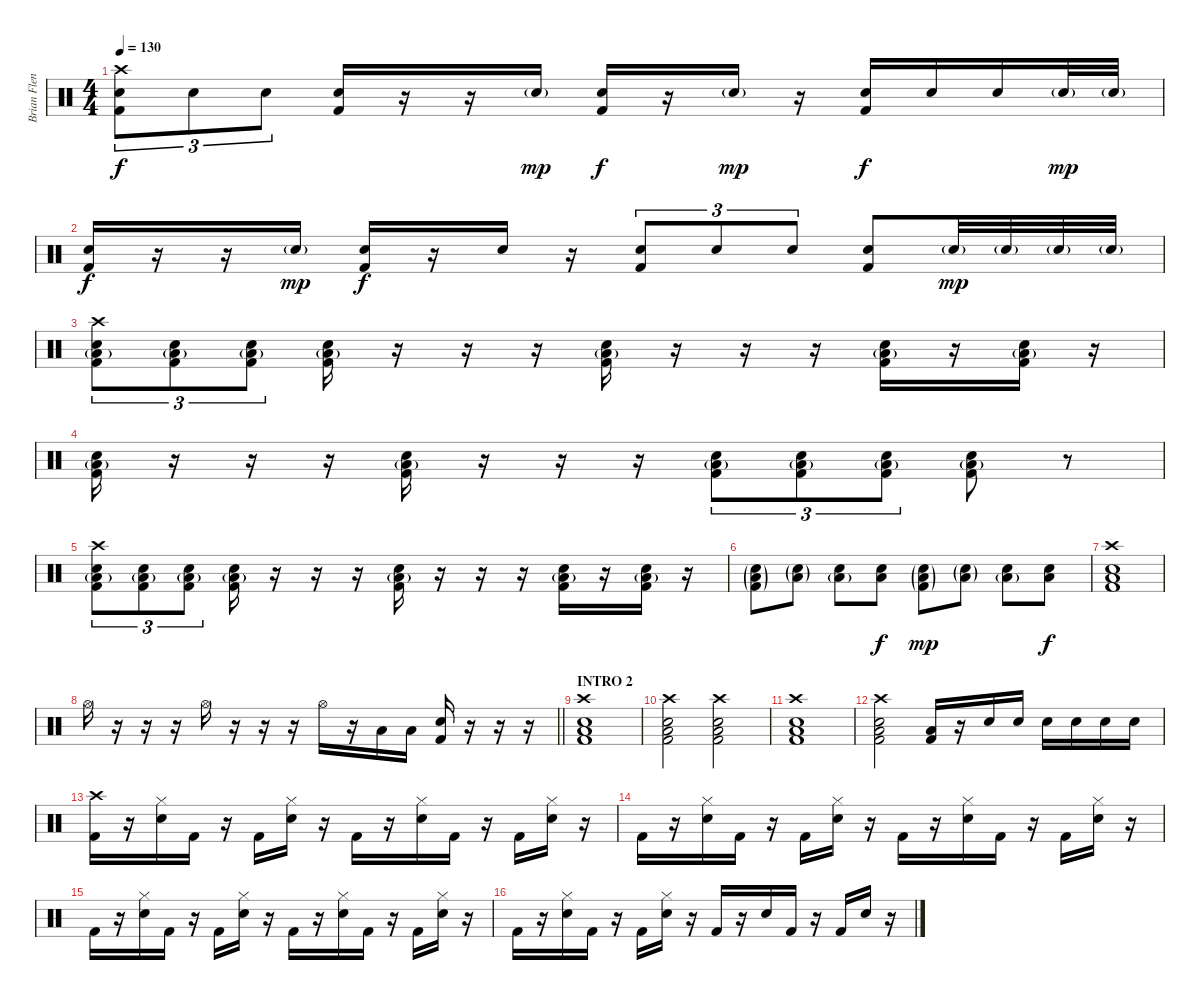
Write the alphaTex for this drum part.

\track ("Brian Flenniken" "Brian Flen") {instrument percussion}
\staff {score}
\articulation defaults
\ts (4 4)
\tempo 130
\clef neutral
\ks c
("Crash high (hit)" "Snare (hit) 2" "Kick (hit) 2").8{tu (3 2) dy f} "Snare (hit) 2".8{tu (3 2)} "Snare (hit) 2".8{tu (3 2)} ("Snare (hit) 2" "Kick (hit) 2").16 r.16 r.16 "Snare (hit) 2"{g}.16{dy mp} ("Snare (hit) 2" "Kick (hit) 2").16{dy f} r.16 "Snare (hit) 2"{g}.16{dy mp} r.16 ("Snare (hit) 2" "Kick (hit) 2").16{dy f} "Snare (hit) 2".16 "Snare (hit) 2".16 "Snare (hit) 2"{g}.32{dy mp} "Snare (hit) 2"{g}.32 |
("Snare (hit) 2" "Kick (hit) 2").16{dy f} r.16 r.16 "Snare (hit) 2"{g}.16{dy mp} ("Snare (hit) 2" "Kick (hit) 2").16{dy f} r.16 "Snare (hit) 2".16 r.16 ("Snare (hit) 2" "Kick (hit) 2").8{tu (3 2)} "Snare (hit) 2".8{tu (3 2)} "Snare (hit) 2".8{tu (3 2)} ("Snare (hit) 2" "Kick (hit) 2").8 "Snare (hit) 2"{g}.32{dy mp} "Snare (hit) 2"{g}.32 "Snare (hit) 2"{g}.32 "Snare (hit) 2"{g}.32 |
("Crash high (hit)" "Low Floor Tom (hit)"{g} "Snare (hit) 2" "Kick (hit) 2").8{tu (3 2)} ("Low Floor Tom (hit)"{g} "Snare (hit) 2" "Kick (hit) 2").8{tu (3 2)} ("Low Floor Tom (hit)"{g} "Snare (hit) 2" "Kick (hit) 2").8{tu (3 2)} ("Low Floor Tom (hit)"{g} "Snare (hit) 2" "Kick (hit) 2").16 r.16 r.16 r.16 ("Low Floor Tom (hit)"{g} "Snare (hit) 2" "Kick (hit) 2").16 r.16 r.16 r.16 ("Low Floor Tom (hit)"{g} "Snare (hit) 2" "Kick (hit) 2").16 r.16 ("Low Floor Tom (hit)"{g} "Snare (hit) 2" "Kick (hit) 2").16 r.16 |
("Low Floor Tom (hit)"{g} "Snare (hit) 2" "Kick (hit) 2").16 r.16 r.16 r.16 ("Low Floor Tom (hit)"{g} "Snare (hit) 2" "Kick (hit) 2").16 r.16 r.16 r.16 ("Low Floor Tom (hit)"{g} "Snare (hit) 2" "Kick (hit) 2").8{tu (3 2)} ("Low Floor Tom (hit)"{g} "Snare (hit) 2" "Kick (hit) 2").8{tu (3 2)} ("Low Floor Tom (hit)"{g} "Snare (hit) 2" "Kick (hit) 2").8{tu (3 2)} ("Low Floor Tom (hit)"{g} "Snare (hit) 2" "Kick (hit) 2").8 r.8 |
("Crash high (hit)" "Low Floor Tom (hit)"{g} "Snare (hit) 2" "Kick (hit) 2").8{tu (3 2)} ("Low Floor Tom (hit)"{g} "Snare (hit) 2" "Kick (hit) 2").8{tu (3 2)} ("Low Floor Tom (hit)"{g} "Snare (hit) 2" "Kick (hit) 2").8{tu (3 2)} ("Low Floor Tom (hit)"{g} "Snare (hit) 2" "Kick (hit) 2").16 r.16 r.16 r.16 ("Low Floor Tom (hit)"{g} "Snare (hit) 2" "Kick (hit) 2").16 r.16 r.16 r.16 ("Low Floor Tom (hit)"{g} "Snare (hit) 2" "Kick (hit) 2").16 r.16 ("Low Floor Tom (hit)"{g} "Snare (hit) 2" "Kick (hit) 2").16 r.16 |
("Low Floor Tom (hit)"{g} "Snare (hit) 2"{g} "Kick (hit) 2"{g}).8 ("Low Floor Tom (hit)"{g} "Snare (hit) 2"{g}).8 ("Low Floor Tom (hit)"{g} "Snare (hit) 2").8 ("Low Floor Tom (hit)" "Snare (hit) 2").8{dy f} ("Low Floor Tom (hit)"{g} "Snare (hit) 2"{g} "Kick (hit) 2"{g}).8{dy mp} ("Low Floor Tom (hit)"{g} "Snare (hit) 2"{g}).8 ("Low Floor Tom (hit)"{g} "Snare (hit) 2").8 ("Low Floor Tom (hit)" "Snare (hit) 2").8{dy f} |
("Crash high (hit)" "Snare (hit) 2" "Low Floor Tom (hit)" "Kick (hit) 2").1 |
\barLineRight lightlight "Hi-Hat (open)".16
r.16 r.16 r.16 "Hi-Hat (open)".16 r.16 r.16 r.16 "Hi-Hat (open)".16 r.16 "Low Floor Tom (hit)".16 "Low Floor Tom (hit)".16 ("Snare (hit) 2" "Kick (hit) 2").16 r.16 r.16 r.16 |
\section ("" "INTRO 2")
("Crash high (hit)" "Low Floor Tom (hit)" "Snare (hit) 2" "Kick (hit) 2").1 |
("Crash high (hit)" "Low Floor Tom (hit)" "Snare (hit) 2" "Kick (hit) 2").2 ("Crash high (hit)" "Low Floor Tom (hit)" "Snare (hit) 2" "Kick (hit) 2").2 |
("Crash high (hit)" "Low Floor Tom (hit)" "Snare (hit) 2" "Kick (hit) 2").1 |
("Crash high (hit)" "Low Floor Tom (hit)" "Snare (hit) 2" "Kick (hit) 2").2 ("Low Floor Tom (hit)" "Kick (hit) 2").16 r.16 "Snare (hit) 2".16 "Snare (hit) 2".16 "Snare (hit) 2".16 "Snare (hit) 2".16 "Snare (hit) 2".16 "Snare (hit) 2".16 |
("Crash high (hit)" "Kick (hit) 2").16 r.16 ("Hi-Hat (closed)" "Snare (hit) 2").16 "Kick (hit) 2".16 r.16 "Kick (hit) 2".16 ("Hi-Hat (closed)" "Snare (hit) 2").16 r.16 "Kick (hit) 2".16 r.16 ("Hi-Hat (closed)" "Snare (hit) 2").16 "Kick (hit) 2".16 r.16 "Kick (hit) 2".16 ("Hi-Hat (closed)" "Snare (hit) 2").16 r.16 |
"Kick (hit) 2".16 r.16 ("Hi-Hat (closed)" "Snare (hit) 2").16 "Kick (hit) 2".16 r.16 "Kick (hit) 2".16 ("Hi-Hat (closed)" "Snare (hit) 2").16 r.16 "Kick (hit) 2".16 r.16 ("Hi-Hat (closed)" "Snare (hit) 2").16 "Kick (hit) 2".16 r.16 "Kick (hit) 2".16 ("Hi-Hat (closed)" "Snare (hit) 2").16 r.16 |
"Kick (hit) 2".16 r.16 ("Hi-Hat (closed)" "Snare (hit) 2").16 "Kick (hit) 2".16 r.16 "Kick (hit) 2".16 ("Hi-Hat (closed)" "Snare (hit) 2").16 r.16 "Kick (hit) 2".16 r.16 ("Hi-Hat (closed)" "Snare (hit) 2").16 "Kick (hit) 2".16 r.16 "Kick (hit) 2".16 ("Hi-Hat (closed)" "Snare (hit) 2").16 r.16 |
"Kick (hit) 2".16 r.16 ("Hi-Hat (closed)" "Snare (hit) 2").16 "Kick (hit) 2".16 r.16 "Kick (hit) 2".16 ("Hi-Hat (closed)" "Snare (hit) 2").16 r.16 "Kick (hit) 2".16 r.16 "Snare (hit) 2".16 "Kick (hit) 2".16 r.16 "Kick (hit) 2".16 "Snare (hit) 2".16 r.16
